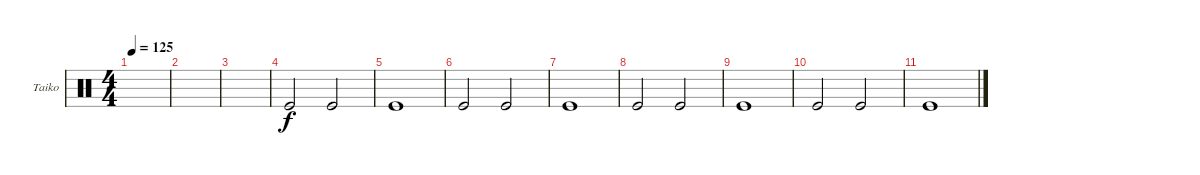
\defaultSystemsLayout 4
\bracketExtendMode groupsimilarinstruments
\firstSystemTrackNameOrientation horizontal
\otherSystemsTrackNameOrientation horizontal
\track ("Taiko Drum" "Taiko") {instrument percussion}
\staff {score}
\articulation defaults
\ts (4 4)
\tempo 125
\clef neutral
\scale
0.333333
\ks c
|
\scale
0.333333 |
\scale
0.333333 |
\scale
0.333333 "Kick (hit)".2 "Kick (hit)".2 |
\scale
0.333333 "Kick (hit)".1 |
\scale
0.333333 "Kick (hit)".2 "Kick (hit)".2 |
\scale
0.333333 "Kick (hit)".1 |
\scale
0.333333 "Kick (hit)".2 "Kick (hit)".2 |
\scale
0.333333 "Kick (hit)".1 |
\scale
0.333333 "Kick (hit)".2 "Kick (hit)".2 |
\scale
0.333333 "Kick (hit)".1 |
\scale
0.333333 |
\scale
0.333333 |
\scale
0.333333 |
\scale
0.333333 |
\scale
0.333333
